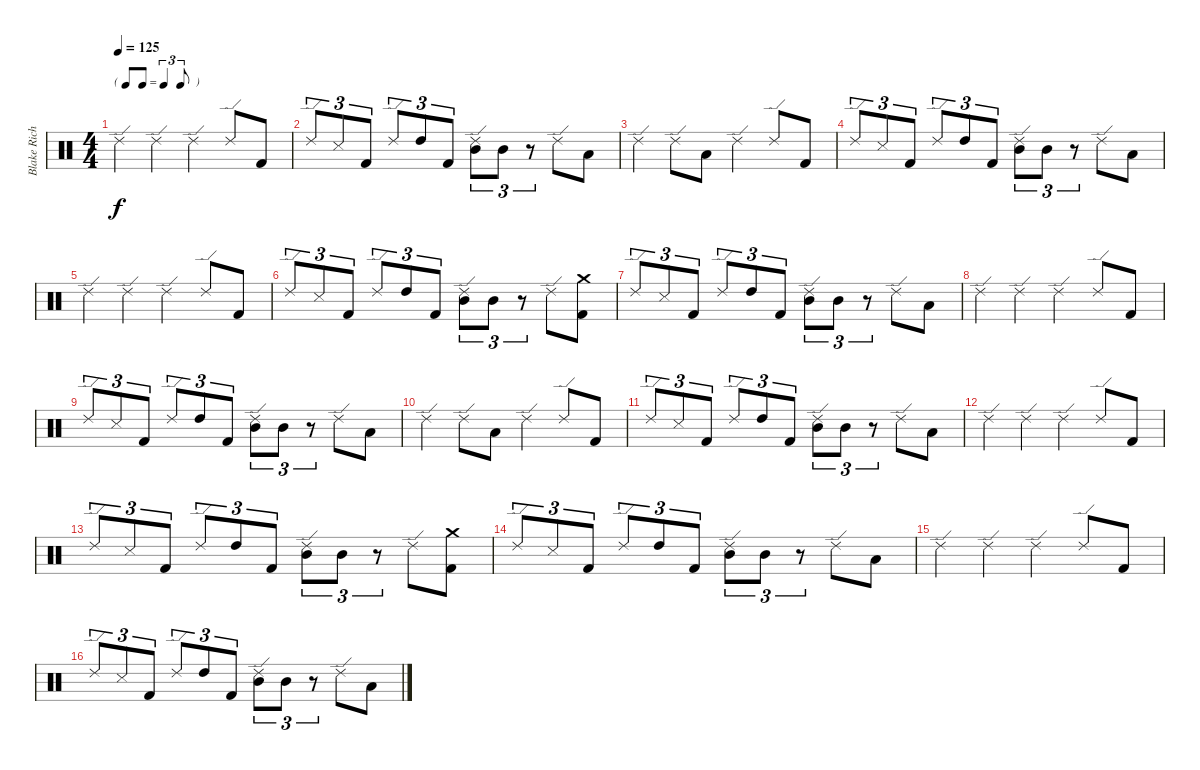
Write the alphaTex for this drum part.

\track ("Blake Richardson - Drums" "Blake Rich") {instrument percussion}
\staff {score}
\articulation defaults
\ts (4 4)
\tf triplet8th
\tempo 125
\clef neutral
\ks c "Ride (edge) 2".4{dy f} "Ride (edge) 2".4 "Ride (edge) 2".4 "Ride (edge) 2".8 "Kick (hit) 2".8
|
"Ride (edge) 2".8{tu (3 2)} "Snare (side stick) 3".8{tu (3 2)} "Kick (hit) 2".8{tu (3 2)} "Ride (edge) 2".8{tu (3 2)} "High Tom (hit)".8{tu (3 2)} "Kick (hit) 2".8{tu (3 2)} ("Ride (edge) 2" "Mid Tom (hit)").8{tu (3 2)} "Mid Tom (hit)".8{tu (3 2)} r.8{tu (3 2)} "Ride (edge) 2".8 "Low Tom (hit)".8 |
"Ride (edge) 2".4 "Ride (edge) 2".8 "Low Floor Tom (hit)".8 "Ride (edge) 2".4 "Ride (edge) 2".8 "Kick (hit) 2".8 |
"Ride (edge) 2".8{tu (3 2)} "Snare (side stick) 3".8{tu (3 2)} "Kick (hit) 2".8{tu (3 2)} "Ride (edge) 2".8{tu (3 2)} "High Tom (hit)".8{tu (3 2)} "Kick (hit) 2".8{tu (3 2)} ("Ride (edge) 2" "Mid Tom (hit)").8{tu (3 2)} "Mid Tom (hit)".8{tu (3 2)} r.8{tu (3 2)} "Ride (edge) 2".8 "Low Tom (hit)".8 |
"Ride (edge) 2".4 "Ride (edge) 2".4 "Ride (edge) 2".4 "Ride (edge) 2".8 "Kick (hit) 2".8 |
"Ride (edge) 2".8{tu (3 2)} "Snare (side stick) 3".8{tu (3 2)} "Kick (hit) 2".8{tu (3 2)} "Ride (edge) 2".8{tu (3 2)} "High Tom (hit)".8{tu (3 2)} "Kick (hit) 2".8{tu (3 2)} ("Ride (edge) 2" "Mid Tom (hit)").8{tu (3 2)} "Mid Tom (hit)".8{tu (3 2)} r.8{tu (3 2)} "Ride (edge) 2".8 ("Crash medium (hit)" "Kick (hit) 2").8 |
"Ride (edge) 2".8{tu (3 2)} "Snare (side stick) 3".8{tu (3 2)} "Kick (hit) 2".8{tu (3 2)} "Ride (edge) 2".8{tu (3 2)} "High Tom (hit)".8{tu (3 2)} "Kick (hit) 2".8{tu (3 2)} ("Ride (edge) 2" "Mid Tom (hit)").8{tu (3 2)} "Mid Tom (hit)".8{tu (3 2)} r.8{tu (3 2)} "Ride (edge) 2".8 "Low Tom (hit)".8 |
"Ride (edge) 2".4 "Ride (edge) 2".4 "Ride (edge) 2".4 "Ride (edge) 2".8 "Kick (hit) 2".8 |
"Ride (edge) 2".8{tu (3 2)} "Snare (side stick) 3".8{tu (3 2)} "Kick (hit) 2".8{tu (3 2)} "Ride (edge) 2".8{tu (3 2)} "High Tom (hit)".8{tu (3 2)} "Kick (hit) 2".8{tu (3 2)} ("Ride (edge) 2" "Mid Tom (hit)").8{tu (3 2)} "Mid Tom (hit)".8{tu (3 2)} r.8{tu (3 2)} "Ride (edge) 2".8 "Low Tom (hit)".8 |
"Ride (edge) 2".4 "Ride (edge) 2".8 "Low Floor Tom (hit)".8 "Ride (edge) 2".4 "Ride (edge) 2".8 "Kick (hit) 2".8 |
"Ride (edge) 2".8{tu (3 2)} "Snare (side stick) 3".8{tu (3 2)} "Kick (hit) 2".8{tu (3 2)} "Ride (edge) 2".8{tu (3 2)} "High Tom (hit)".8{tu (3 2)} "Kick (hit) 2".8{tu (3 2)} ("Ride (edge) 2" "Mid Tom (hit)").8{tu (3 2)} "Mid Tom (hit)".8{tu (3 2)} r.8{tu (3 2)} "Ride (edge) 2".8 "Low Tom (hit)".8 |
"Ride (edge) 2".4 "Ride (edge) 2".4 "Ride (edge) 2".4 "Ride (edge) 2".8 "Kick (hit) 2".8 |
"Ride (edge) 2".8{tu (3 2)} "Snare (side stick) 3".8{tu (3 2)} "Kick (hit) 2".8{tu (3 2)} "Ride (edge) 2".8{tu (3 2)} "High Tom (hit)".8{tu (3 2)} "Kick (hit) 2".8{tu (3 2)} ("Ride (edge) 2" "Mid Tom (hit)").8{tu (3 2)} "Mid Tom (hit)".8{tu (3 2)} r.8{tu (3 2)} "Ride (edge) 2".8 ("Crash medium (hit)" "Kick (hit) 2").8 |
"Ride (edge) 2".8{tu (3 2)} "Snare (side stick) 3".8{tu (3 2)} "Kick (hit) 2".8{tu (3 2)} "Ride (edge) 2".8{tu (3 2)} "High Tom (hit)".8{tu (3 2)} "Kick (hit) 2".8{tu (3 2)} ("Ride (edge) 2" "Mid Tom (hit)").8{tu (3 2)} "Mid Tom (hit)".8{tu (3 2)} r.8{tu (3 2)} "Ride (edge) 2".8 "Low Tom (hit)".8 |
"Ride (edge) 2".4 "Ride (edge) 2".4 "Ride (edge) 2".4 "Ride (edge) 2".8 "Kick (hit) 2".8 |
"Ride (edge) 2".8{tu (3 2)} "Snare (side stick) 3".8{tu (3 2)} "Kick (hit) 2".8{tu (3 2)} "Ride (edge) 2".8{tu (3 2)} "High Tom (hit)".8{tu (3 2)} "Kick (hit) 2".8{tu (3 2)} ("Ride (edge) 2" "Mid Tom (hit)").8{tu (3 2)} "Mid Tom (hit)".8{tu (3 2)} r.8{tu (3 2)} "Ride (edge) 2".8 "Low Tom (hit)".8
